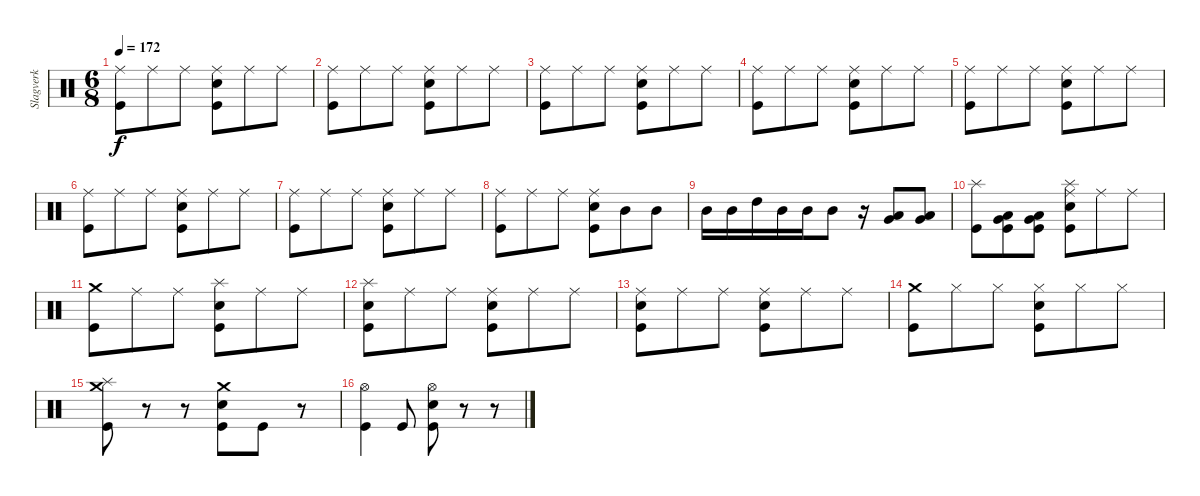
\track ("Slagverk" "Slagverk") {instrument percussion}
\staff {score}
\articulation defaults
\ts (6 8)
\tempo 172
\clef neutral
\ks c
("Ride (middle)" "Kick (hit)").8{dy f} "Ride (middle)".8 "Ride (middle)".8 ("Ride (middle)" "Snare (hit) 2" "Kick (hit)").8 "Ride (middle)".8 "Ride (middle)".8 |
("Ride (middle)" "Kick (hit)").8 "Ride (middle)".8 "Ride (middle)".8 ("Ride (middle)" "Snare (hit) 2" "Kick (hit)").8 "Ride (middle)".8 "Ride (middle)".8 |
("Ride (middle)" "Kick (hit)").8 "Ride (middle)".8 "Ride (middle)".8 ("Ride (middle)" "Snare (hit) 2" "Kick (hit)").8 "Ride (middle)".8 "Ride (middle)".8 |
("Ride (middle)" "Kick (hit)").8 "Ride (middle)".8 "Ride (middle)".8 ("Ride (middle)" "Snare (hit) 2" "Kick (hit)").8 "Ride (middle)".8 "Ride (middle)".8 |
("Ride (middle)" "Kick (hit)").8 "Ride (middle)".8 "Ride (middle)".8 ("Ride (middle)" "Snare (hit) 2" "Kick (hit)").8 "Ride (middle)".8 "Ride (middle)".8 |
("Ride (middle)" "Kick (hit)").8 "Ride (middle)".8 "Ride (middle)".8 ("Ride (middle)" "Snare (hit) 2" "Kick (hit)").8 "Ride (middle)".8 "Ride (middle)".8 |
("Ride (middle)" "Kick (hit)").8 "Ride (middle)".8 "Ride (middle)".8 ("Ride (middle)" "Snare (hit) 2" "Kick (hit)").8 "Ride (middle)".8 "Ride (middle)".8 |
("Ride (middle)" "Kick (hit)").8 "Ride (middle)".8 "Ride (middle)".8 ("Ride (middle)" "Snare (hit) 2" "Kick (hit)").8 "Mid Tom (hit)".8 "Mid Tom (hit)".8 |
"Mid Tom (hit)".16 "Mid Tom (hit)".16 "High Tom (hit)".16 "Mid Tom (hit)".16 "Mid Tom (hit)".16 "Mid Tom (hit)".8 r.16 ("Very Low Tom (hit)" "Low Tom (hit)").8 ("Very Low Tom (hit)" "Low Tom (hit)").8 |
("Splash (hit)" "Kick (hit)").8 ("Low Floor Tom (hit)" "Very Low Tom (hit)" "Kick (hit)").8 ("Low Floor Tom (hit)" "Very Low Tom (hit)" "Kick (hit)").8 ("Splash (hit)" "Ride (middle)" "Snare (hit) 2" "Kick (hit)").8 "Ride (middle)".8 "Ride (middle)".8 |
("Crash medium (hit)" "Kick (hit)").8 "Ride (middle)".8 "Ride (middle)".8 ("Splash (hit)" "Snare (hit) 2" "Kick (hit)").8 "Ride (middle)".8 "Ride (middle)".8 |
("Splash (hit)" "Snare (hit) 2" "Kick (hit)").8 "Ride (middle)".8 "Ride (middle)".8 ("Ride (middle)" "Snare (hit) 2" "Kick (hit)").8 "Ride (middle)".8 "Ride (middle)".8 |
("Ride (middle)" "Snare (hit) 2" "Kick (hit)").8 "Ride (middle)".8 "Ride (middle)".8 ("Ride (middle)" "Snare (hit) 2" "Kick (hit)").8 "Ride (middle)".8 "Ride (middle)".8 |
("Crash medium (hit)" "Kick (hit)").8 "Hi-Hat (closed)".8 "Hi-Hat (closed)".8 ("Hi-Hat (closed)" "Snare (hit) 2" "Kick (hit)").8 "Hi-Hat (closed)".8 "Hi-Hat (closed)".8 |
("Splash (hit)" "Crash medium (hit)" "Kick (hit)").8{volume 16} r.8{volume 0} r.8 ("Crash medium (hit)" "Snare (hit) 2" "Kick (hit)").8{volume 16} "Kick (hit)".8 r.8 |
("Hi-Hat (open)" "Kick (hit)").4 "Kick (hit)".8 ("Hi-Hat (open)" "Snare (hit) 2" "Kick (hit)").8 r.8 r.8
